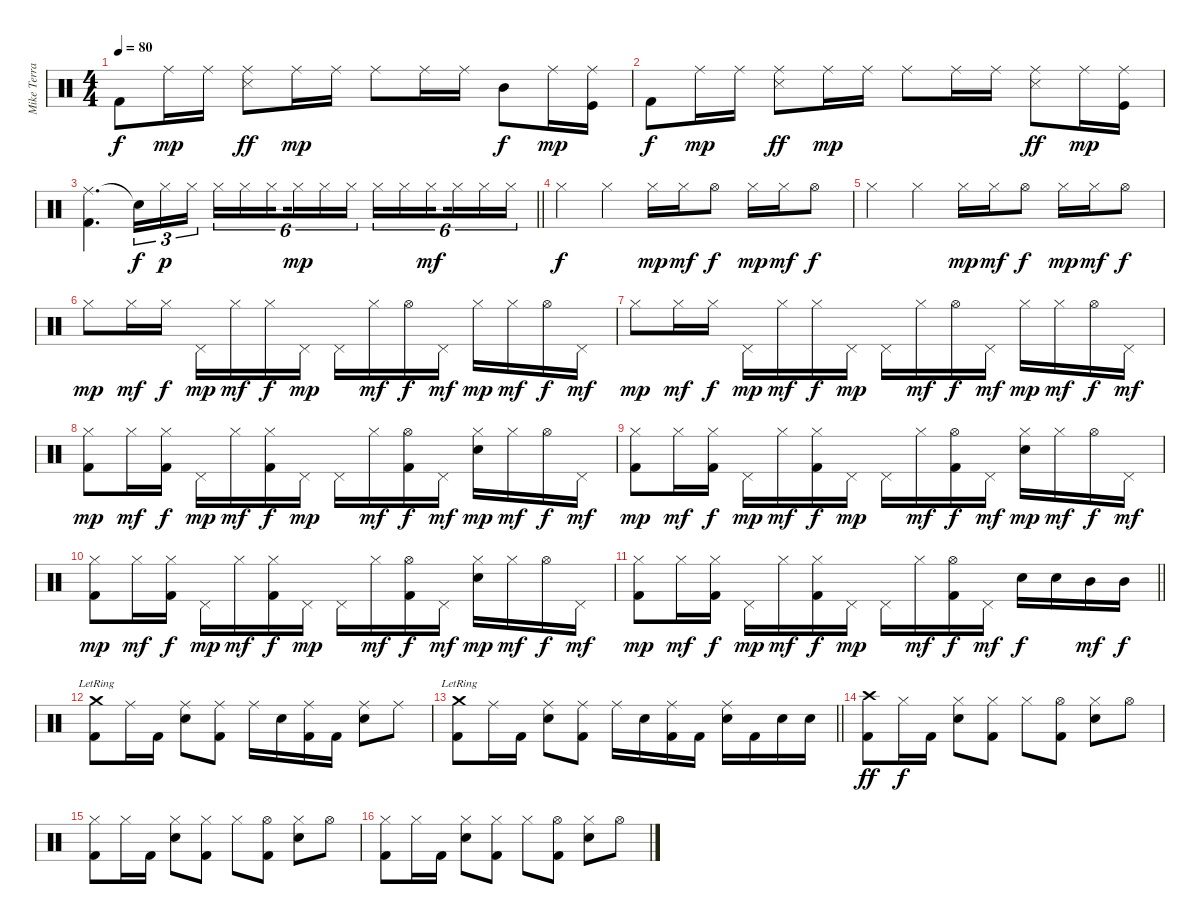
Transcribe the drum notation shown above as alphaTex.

\track ("Mike Terrana" "Mike Terra") {instrument percussion}
\staff {score}
\articulation defaults
\ts (4 4)
\tempo 80
\clef neutral
\ks c "Kick (hit) 2".8{dy f} "Ride (middle)".16{dy mp} "Ride (middle)".16
("Ride (middle)" "Snare (side stick) 3").8{dy ff} "Ride (middle)".16{dy mp} "Ride (middle)".16 "Ride (middle)".8 "Ride (middle)".16 "Ride (middle)".16 "Mid Tom (hit)".8{dy f} "Ride (middle)".16{dy mp} ("Ride (middle)" "Kick (hit)").16 |
"Kick (hit) 2".8{dy f} "Ride (middle)".16{dy mp} "Ride (middle)".16 ("Ride (middle)" "Snare (side stick) 3").8{dy ff} "Ride (middle)".16{dy mp} "Ride (middle)".16 "Ride (middle)".8 "Ride (middle)".16 "Ride (middle)".16 ("Ride (middle)" "Snare (side stick) 3").8{dy ff} "Ride (middle)".16{dy mp} ("Ride (middle)" "Kick (hit)").16 |
\barLineRight lightlight
("Ride (middle)" "Kick (hit) 2").4{d} "Snare (hit)"{t}.16{tu (3 2) dy f} "Hi-Hat (closed)".16{tu (3 2) dy p} "Hi-Hat (closed)".16{tu (3 2)} "Hi-Hat (closed)".16{tu (6 4)} "Hi-Hat (closed)".16{tu (6 4)} "Hi-Hat (closed)".16{tu (6 4) beam splitsecondary} "Hi-Hat (closed)".16{tu (6 4) dy mp} "Hi-Hat (closed)".16{tu (6 4)} "Hi-Hat (closed)".16{tu (6 4)} "Hi-Hat (closed)".16{tu (6 4)} "Hi-Hat (closed)".16{tu (6 4)} "Hi-Hat (closed)".16{tu (6 4) dy mf beam splitsecondary} "Hi-Hat (closed)".16{tu (6 4)} "Hi-Hat (closed)".16{tu (6 4)} "Hi-Hat (closed)".16{tu (6 4)} |
"Hi-Hat (closed)".4{dy f} "Hi-Hat (closed)".4 "Hi-Hat (closed)".16{dy mp} "Hi-Hat (closed)".16{dy mf} "Hi-Hat (open)".8{dy f} "Hi-Hat (closed)".16{dy mp} "Hi-Hat (closed)".16{dy mf} "Hi-Hat (open)".8{dy f} |
"Hi-Hat (closed)".4 "Hi-Hat (closed)".4 "Hi-Hat (closed)".16{dy mp} "Hi-Hat (closed)".16{dy mf} "Hi-Hat (open)".8{dy f} "Hi-Hat (closed)".16{dy mp} "Hi-Hat (closed)".16{dy mf} "Hi-Hat (open)".8{dy f} |
"Hi-Hat (closed)".8{dy mp} "Hi-Hat (closed)".16{dy mf} "Hi-Hat (closed)".16{dy f} "Pedal Hi-Hat (hit)".16{dy mp} "Hi-Hat (closed)".16{dy mf} "Hi-Hat (closed)".16{dy f} "Pedal Hi-Hat (hit)".16{dy mp} "Pedal Hi-Hat (hit)".16 "Hi-Hat (closed)".16{dy mf} "Hi-Hat (open)".16{dy f} "Pedal Hi-Hat (hit)".16{dy mf} "Hi-Hat (closed)".16{dy mp} "Hi-Hat (closed)".16{dy mf} "Hi-Hat (open)".16{dy f} "Pedal Hi-Hat (hit)".16{dy mf} |
"Hi-Hat (closed)".8{dy mp} "Hi-Hat (closed)".16{dy mf} "Hi-Hat (closed)".16{dy f} "Pedal Hi-Hat (hit)".16{dy mp} "Hi-Hat (closed)".16{dy mf} "Hi-Hat (closed)".16{dy f} "Pedal Hi-Hat (hit)".16{dy mp} "Pedal Hi-Hat (hit)".16 "Hi-Hat (closed)".16{dy mf} "Hi-Hat (open)".16{dy f} "Pedal Hi-Hat (hit)".16{dy mf} "Hi-Hat (closed)".16{dy mp} "Hi-Hat (closed)".16{dy mf} "Hi-Hat (open)".16{dy f} "Pedal Hi-Hat (hit)".16{dy mf} |
("Hi-Hat (closed)" "Kick (hit) 2").8{dy mp} "Hi-Hat (closed)".16{dy mf} ("Hi-Hat (closed)" "Kick (hit) 2").16{dy f} "Pedal Hi-Hat (hit)".16{dy mp} "Hi-Hat (closed)".16{dy mf} ("Hi-Hat (closed)" "Kick (hit) 2").16{dy f} "Pedal Hi-Hat (hit)".16{dy mp} "Pedal Hi-Hat (hit)".16 "Hi-Hat (closed)".16{dy mf} ("Hi-Hat (open)" "Kick (hit) 2").16{dy f} "Pedal Hi-Hat (hit)".16{dy mf} ("Electric Snare (hit)" "Hi-Hat (closed)").16{dy mp} "Hi-Hat (closed)".16{dy mf} "Hi-Hat (open)".16{dy f} "Pedal Hi-Hat (hit)".16{dy mf} |
("Hi-Hat (closed)" "Kick (hit) 2").8{dy mp} "Hi-Hat (closed)".16{dy mf} ("Hi-Hat (closed)" "Kick (hit) 2").16{dy f} "Pedal Hi-Hat (hit)".16{dy mp} "Hi-Hat (closed)".16{dy mf} ("Hi-Hat (closed)" "Kick (hit) 2").16{dy f} "Pedal Hi-Hat (hit)".16{dy mp} "Pedal Hi-Hat (hit)".16 "Hi-Hat (closed)".16{dy mf} ("Hi-Hat (open)" "Kick (hit) 2").16{dy f} "Pedal Hi-Hat (hit)".16{dy mf} ("Electric Snare (hit)" "Hi-Hat (closed)").16{dy mp} "Hi-Hat (closed)".16{dy mf} "Hi-Hat (open)".16{dy f} "Pedal Hi-Hat (hit)".16{dy mf} |
("Hi-Hat (closed)" "Kick (hit) 2").8{dy mp} "Hi-Hat (closed)".16{dy mf} ("Hi-Hat (closed)" "Kick (hit) 2").16{dy f} "Pedal Hi-Hat (hit)".16{dy mp} "Hi-Hat (closed)".16{dy mf} ("Hi-Hat (closed)" "Kick (hit) 2").16{dy f} "Pedal Hi-Hat (hit)".16{dy mp} "Pedal Hi-Hat (hit)".16 "Hi-Hat (closed)".16{dy mf} ("Hi-Hat (open)" "Kick (hit) 2").16{dy f} "Pedal Hi-Hat (hit)".16{dy mf} ("Electric Snare (hit)" "Hi-Hat (closed)").16{dy mp} "Hi-Hat (closed)".16{dy mf} "Hi-Hat (open)".16{dy f} "Pedal Hi-Hat (hit)".16{dy mf} |
\barLineRight lightlight
("Hi-Hat (closed)" "Kick (hit) 2").8{dy mp} "Hi-Hat (closed)".16{dy mf} ("Hi-Hat (closed)" "Kick (hit) 2").16{dy f} "Pedal Hi-Hat (hit)".16{dy mp} "Hi-Hat (closed)".16{dy mf} ("Hi-Hat (closed)" "Kick (hit) 2").16{dy f} "Pedal Hi-Hat (hit)".16{dy mp} "Pedal Hi-Hat (hit)".16 "Hi-Hat (closed)".16{dy mf} ("Hi-Hat (open)" "Kick (hit) 2").16{dy f} "Pedal Hi-Hat (hit)".16{dy mf} "Electric Snare (hit)".16{dy f} "Electric Snare (hit)".16 "Mid Tom (hit)".16{dy mf} "Mid Tom (hit)".16{dy f} |
("Crash medium (hit)"{lr} "Kick (hit) 2").8 "Ride (middle)".16 "Kick (hit) 2".16 ("Ride (middle)" "Electric Snare (hit)").8 ("Ride (middle)" "Kick (hit) 2").8 "Ride (middle)".16 "Electric Snare (hit)".16 ("Ride (middle)" "Kick (hit) 2").16 "Kick (hit) 2".16 ("Ride (middle)" "Electric Snare (hit)").8 "Ride (middle)".8 |
\barLineRight lightlight
("Crash medium (hit)"{lr} "Kick (hit) 2").8 "Ride (middle)".16 "Kick (hit) 2".16 ("Ride (middle)" "Electric Snare (hit)").8 ("Ride (middle)" "Kick (hit) 2").8 "Ride (middle)".16 "Electric Snare (hit)".16 ("Ride (middle)" "Kick (hit) 2").16 "Kick (hit) 2".16 ("Ride (middle)" "Electric Snare (hit)").16 "Kick (hit) 2".16 "Electric Snare (hit)".16 "Electric Snare (hit)".16 |
("Crash high (hit)" "Kick (hit) 2").8{dy ff} "Hi-Hat (closed)".16{dy f} "Kick (hit) 2".16 ("Hi-Hat (closed)" "Electric Snare (hit)").8 ("Hi-Hat (closed)" "Kick (hit) 2").8 "Hi-Hat (closed)".8 ("Hi-Hat (open)" "Kick (hit) 2").8 ("Hi-Hat (closed)" "Electric Snare (hit)").8 "Hi-Hat (open)".8 |
("Hi-Hat (closed)" "Kick (hit) 2").8 "Hi-Hat (closed)".16 "Kick (hit) 2".16 ("Hi-Hat (closed)" "Electric Snare (hit)").8 ("Hi-Hat (closed)" "Kick (hit) 2").8 "Hi-Hat (closed)".8 ("Hi-Hat (open)" "Kick (hit) 2").8 ("Hi-Hat (closed)" "Electric Snare (hit)").8 "Hi-Hat (open)".8 |
("Hi-Hat (closed)" "Kick (hit) 2").8 "Hi-Hat (closed)".16 "Kick (hit) 2".16 ("Hi-Hat (closed)" "Electric Snare (hit)").8 ("Hi-Hat (closed)" "Kick (hit) 2").8 "Hi-Hat (closed)".8 ("Hi-Hat (open)" "Kick (hit) 2").8 ("Hi-Hat (closed)" "Electric Snare (hit)").8 "Hi-Hat (open)".8
